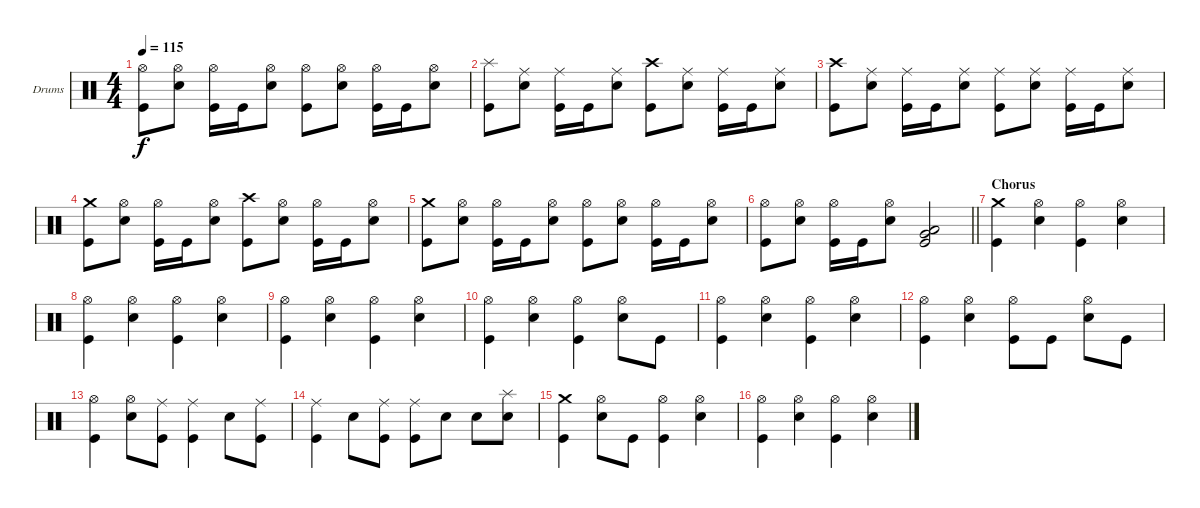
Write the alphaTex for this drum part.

\bracketExtendMode groupsimilarinstruments
\firstSystemTrackNameOrientation horizontal
\otherSystemsTrackNameOrientation horizontal
\track ("Drumkit" "Drums") {instrument percussion}
\staff {score}
\articulation defaults
\ts (4 4)
\tempo 115
\clef neutral
\ks c
("Hi-Hat (open)" "Kick (hit)").8{dy f} ("Hi-Hat (open)" "Snare (hit) 2").8 ("Hi-Hat (open)" "Kick (hit)").16 "Kick (hit)".16 ("Hi-Hat (open)" "Snare (hit) 2").8 ("Hi-Hat (open)" "Kick (hit)").8 ("Hi-Hat (open)" "Snare (hit) 2").8 ("Hi-Hat (open)" "Kick (hit)").16 "Kick (hit)".16 ("Hi-Hat (open)" "Snare (hit) 2").8 |
("Splash (hit)" "Kick (hit)").8 ("Ride (middle)" "Snare (hit) 2").8 ("Ride (middle)" "Kick (hit)").16 "Kick (hit)".16 ("Ride (middle)" "Snare (hit) 2").8 ("Crash high (hit)" "Kick (hit)").8 ("Ride (middle)" "Snare (hit) 2").8 ("Ride (middle)" "Kick (hit)").16 "Kick (hit)".16 ("Ride (middle)" "Snare (hit) 2").8 |
("Crash high (hit)" "Kick (hit)").8 ("Ride (middle)" "Snare (hit) 2").8 ("Ride (middle)" "Kick (hit)").16 "Kick (hit)".16 ("Ride (middle)" "Snare (hit) 2").8 ("Ride (middle)" "Kick (hit)").8 ("Ride (middle)" "Snare (hit) 2").8 ("Ride (middle)" "Kick (hit)").16 "Kick (hit)".16 ("Ride (middle)" "Snare (hit) 2").8 |
("Crash medium (hit)" "Kick (hit)").8 ("Hi-Hat (open)" "Snare (hit) 2").8 ("Hi-Hat (open)" "Kick (hit)").16 "Kick (hit)".16 ("Hi-Hat (open)" "Snare (hit) 2").8 ("Crash high (hit)" "Kick (hit)").8 ("Hi-Hat (open)" "Snare (hit) 2").8 ("Hi-Hat (open)" "Kick (hit)").16 "Kick (hit)".16 ("Hi-Hat (open)" "Snare (hit) 2").8 |
("Crash medium (hit)" "Kick (hit)").8 ("Hi-Hat (open)" "Snare (hit) 2").8 ("Hi-Hat (open)" "Kick (hit)").16 "Kick (hit)".16 ("Hi-Hat (open)" "Snare (hit) 2").8 ("Hi-Hat (open)" "Kick (hit)").8 ("Hi-Hat (open)" "Snare (hit) 2").8 ("Hi-Hat (open)" "Kick (hit)").16 "Kick (hit)".16 ("Hi-Hat (open)" "Snare (hit) 2").8 |
\barLineRight lightlight
("Hi-Hat (open)" "Kick (hit)").8 ("Hi-Hat (open)" "Snare (hit) 2").8 ("Hi-Hat (open)" "Kick (hit)").16 "Kick (hit)".16 ("Hi-Hat (open)" "Snare (hit) 2").8 ("Low Tom (hit)" "Very Low Tom (hit)" "Kick (hit)").2 |
\section ("" "Chorus")
("Crash medium (hit)" "Kick (hit)").4 ("Hi-Hat (open)" "Snare (hit) 2").4 ("Hi-Hat (open)" "Kick (hit)").4 ("Hi-Hat (open)" "Snare (hit) 2").4 |
("Hi-Hat (open)" "Kick (hit)").4 ("Hi-Hat (open)" "Snare (hit) 2").4 ("Hi-Hat (open)" "Kick (hit)").4 ("Hi-Hat (open)" "Snare (hit) 2").4 |
("Hi-Hat (open)" "Kick (hit)").4 ("Hi-Hat (open)" "Snare (hit) 2").4 ("Hi-Hat (open)" "Kick (hit)").4 ("Hi-Hat (open)" "Snare (hit) 2").4 |
("Hi-Hat (open)" "Kick (hit)").4 ("Hi-Hat (open)" "Snare (hit) 2").4 ("Hi-Hat (open)" "Kick (hit)").4 ("Hi-Hat (open)" "Snare (hit) 2").8 "Kick (hit)".8 |
("Hi-Hat (open)" "Kick (hit)").4 ("Hi-Hat (open)" "Snare (hit) 2").4 ("Hi-Hat (open)" "Kick (hit)").4 ("Hi-Hat (open)" "Snare (hit) 2").4 |
("Hi-Hat (open)" "Kick (hit)").4 ("Hi-Hat (open)" "Snare (hit) 2").4 ("Hi-Hat (open)" "Kick (hit)").8 "Kick (hit)".8 ("Hi-Hat (open)" "Snare (hit) 2").8 "Kick (hit)".8 |
("Hi-Hat (open)" "Kick (hit)").4 ("Hi-Hat (open)" "Snare (hit) 2").8 ("Ride (middle)" "Kick (hit)").8 ("Ride (middle)" "Kick (hit)").4 "Snare (hit) 2".8 ("Ride (middle)" "Kick (hit)").8 |
("Ride (middle)" "Kick (hit)").4 "Snare (hit) 2".8 ("Ride (middle)" "Kick (hit)").8 ("Ride (middle)" "Kick (hit)").8 "Snare (hit) 2".8 "Snare (hit) 2".8 ("Splash (hit)" "Snare (hit) 2").8 |
("Crash medium (hit)" "Kick (hit)").4 ("Hi-Hat (open)" "Snare (hit) 2").8 "Kick (hit)".8 ("Hi-Hat (open)" "Kick (hit)").4 ("Hi-Hat (open)" "Snare (hit) 2").4 |
("Hi-Hat (open)" "Kick (hit)").4 ("Hi-Hat (open)" "Snare (hit) 2").4 ("Hi-Hat (open)" "Kick (hit)").4 ("Hi-Hat (open)" "Snare (hit) 2").4
